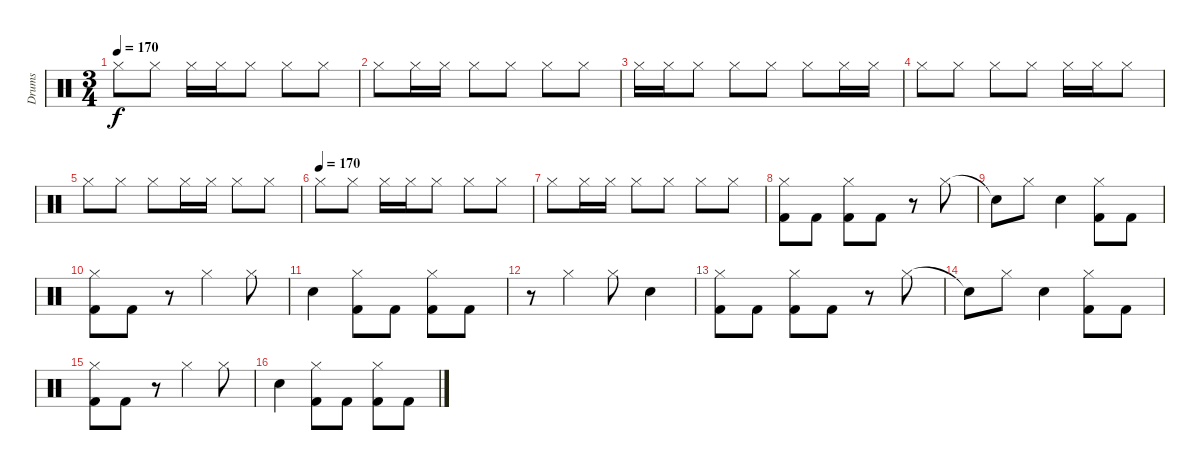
\track ("Drums" "Drums") {instrument percussion}
\staff {score}
\articulation defaults
\ts (3 4)
\tempo 170
\clef neutral
\ks c "Hi-Hat (closed)".8{dy f} "Hi-Hat (closed)".8 "Hi-Hat (closed)".16 "Hi-Hat (closed)".16 "Hi-Hat (closed)".8 "Hi-Hat (closed)".8 "Hi-Hat (closed)".8
|
"Hi-Hat (closed)".8 "Hi-Hat (closed)".16 "Hi-Hat (closed)".16 "Hi-Hat (closed)".8 "Hi-Hat (closed)".8 "Hi-Hat (closed)".8 "Hi-Hat (closed)".8 |
"Hi-Hat (closed)".16 "Hi-Hat (closed)".16 "Hi-Hat (closed)".8 "Hi-Hat (closed)".8 "Hi-Hat (closed)".8 "Hi-Hat (closed)".8 "Hi-Hat (closed)".16 "Hi-Hat (closed)".16 |
"Hi-Hat (closed)".8 "Hi-Hat (closed)".8 "Hi-Hat (closed)".8 "Hi-Hat (closed)".8 "Hi-Hat (closed)".16 "Hi-Hat (closed)".16 "Hi-Hat (closed)".8 |
"Hi-Hat (closed)".8 "Hi-Hat (closed)".8 "Hi-Hat (closed)".8 "Hi-Hat (closed)".16 "Hi-Hat (closed)".16 "Hi-Hat (closed)".8 "Hi-Hat (closed)".8 |
\tempo (170)
"Hi-Hat (closed)".8 "Hi-Hat (closed)".8 "Hi-Hat (closed)".16 "Hi-Hat (closed)".16 "Hi-Hat (closed)".8 "Hi-Hat (closed)".8 "Hi-Hat (closed)".8 |
"Hi-Hat (closed)".8 "Hi-Hat (closed)".16 "Hi-Hat (closed)".16 "Hi-Hat (closed)".8 "Hi-Hat (closed)".8 "Hi-Hat (closed)".8 "Hi-Hat (closed)".8 |
("Hi-Hat (closed)" "Kick (hit) 2").8 "Kick (hit) 2".8 ("Hi-Hat (closed)" "Kick (hit) 2").8 "Kick (hit) 2".8 r.8 "Hi-Hat (closed)".8 |
"Snare (hit)"{t}.8 "Hi-Hat (closed)".8 "Electric Snare (hit)".4 ("Hi-Hat (closed)" "Kick (hit) 2").8 "Kick (hit) 2".8 |
("Hi-Hat (closed)" "Kick (hit) 2").8 "Kick (hit) 2".8 r.8 "Hi-Hat (closed)".4 "Hi-Hat (closed)".8 |
"Electric Snare (hit)".4 ("Hi-Hat (closed)" "Kick (hit) 2").8 "Kick (hit) 2".8 ("Hi-Hat (closed)" "Kick (hit) 2").8 "Kick (hit) 2".8 |
r.8 "Hi-Hat (closed)".4 "Hi-Hat (closed)".8 "Electric Snare (hit)".4 |
("Hi-Hat (closed)" "Kick (hit) 2").8 "Kick (hit) 2".8 ("Hi-Hat (closed)" "Kick (hit) 2").8 "Kick (hit) 2".8 r.8 "Hi-Hat (closed)".8 |
"Snare (hit)"{t}.8 "Hi-Hat (closed)".8 "Electric Snare (hit)".4 ("Hi-Hat (closed)" "Kick (hit) 2").8 "Kick (hit) 2".8 |
("Hi-Hat (closed)" "Kick (hit) 2").8 "Kick (hit) 2".8 r.8 "Hi-Hat (closed)".4 "Hi-Hat (closed)".8 |
"Electric Snare (hit)".4 ("Hi-Hat (closed)" "Kick (hit) 2").8 "Kick (hit) 2".8 ("Hi-Hat (closed)" "Kick (hit) 2").8 "Kick (hit) 2".8
